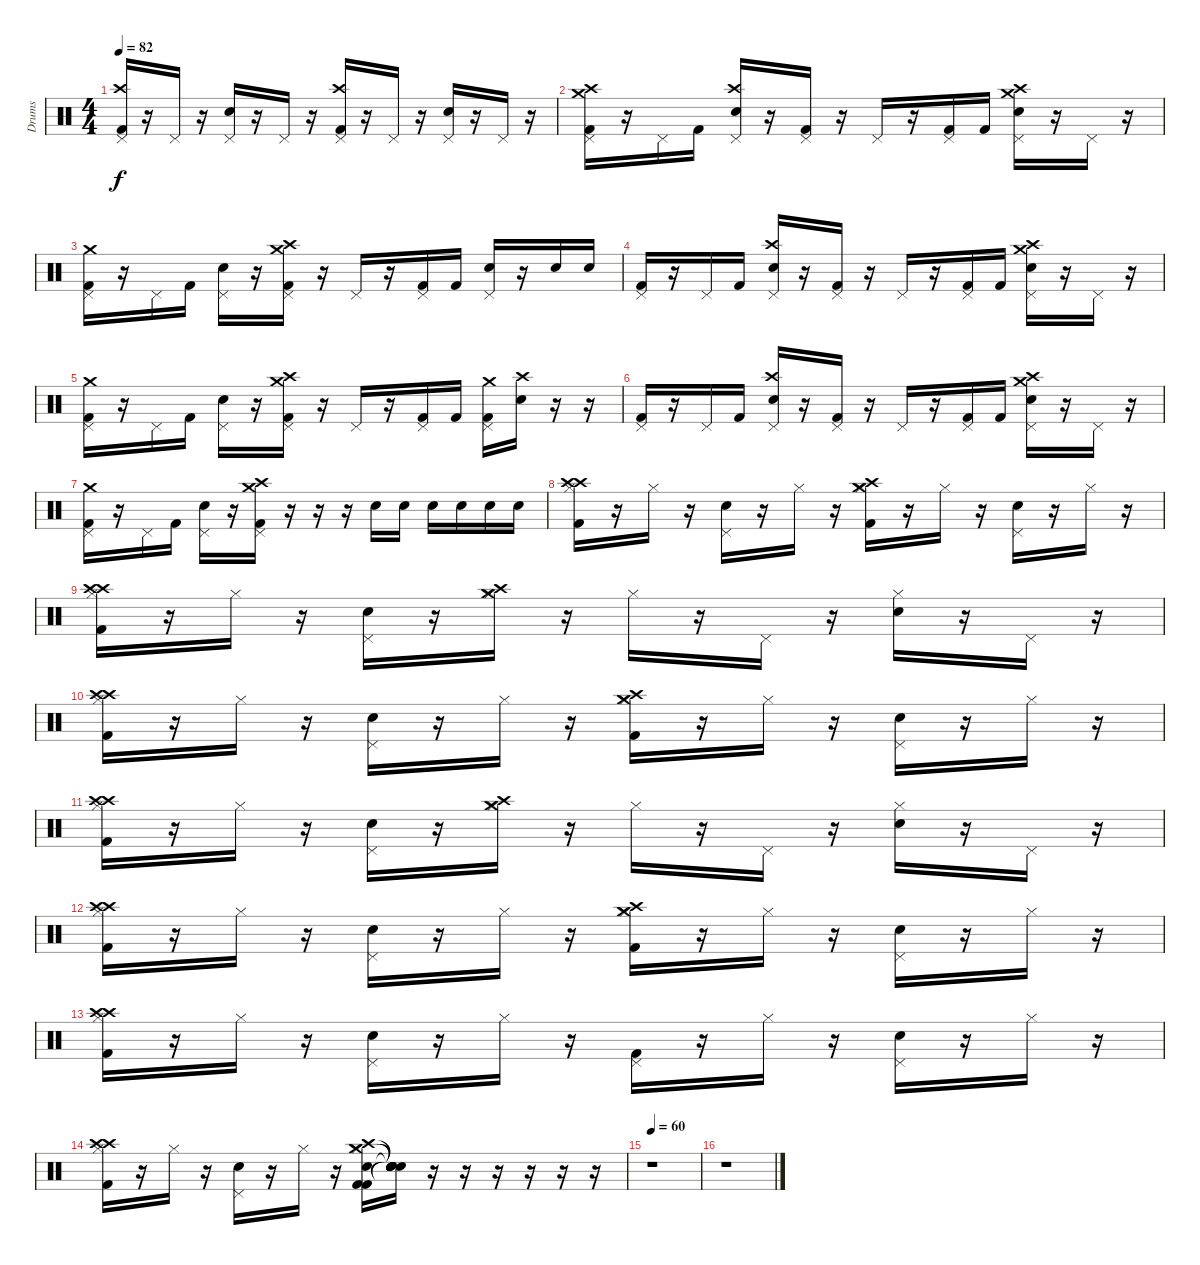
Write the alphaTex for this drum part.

\track ("Drums" "Drums") {instrument percussion}
\staff {score}
\articulation defaults
\ts (4 4)
\tempo 82
\clef neutral
\ks c
("Pedal Hi-Hat (hit)" "Crash high (hit)" "Kick (hit) 2").16{dy f} r.16 "Pedal Hi-Hat (hit)".16 r.16 ("Pedal Hi-Hat (hit)" "Snare (hit) 2").16 r.16 "Pedal Hi-Hat (hit)".16 r.16 ("Pedal Hi-Hat (hit)" "Crash high (hit)" "Kick (hit) 2").16 r.16 "Pedal Hi-Hat (hit)".16 r.16 ("Pedal Hi-Hat (hit)" "Snare (hit) 2").16 r.16 "Pedal Hi-Hat (hit)".16 r.16 |
("Pedal Hi-Hat (hit)" "Crash high (hit)" "Kick (hit) 2" "Crash medium (hit)").16 r.16 "Pedal Hi-Hat (hit)".16 "Kick (hit) 2".16 ("Pedal Hi-Hat (hit)" "Crash high (hit)" "Snare (hit) 2").16 r.16 ("Pedal Hi-Hat (hit)" "Kick (hit) 2").16 r.16 "Pedal Hi-Hat (hit)".16 r.16 ("Pedal Hi-Hat (hit)" "Kick (hit) 2").16 "Kick (hit) 2".16 ("Pedal Hi-Hat (hit)" "Crash high (hit)" "Snare (hit) 2" "Crash medium (hit)").16 r.16 "Pedal Hi-Hat (hit)".16 r.16 |
("Pedal Hi-Hat (hit)" "Crash medium (hit)" "Kick (hit) 2").16 r.16 "Pedal Hi-Hat (hit)".16 "Kick (hit) 2".16 ("Pedal Hi-Hat (hit)" "Snare (hit) 2").16 r.16 ("Pedal Hi-Hat (hit)" "Crash medium (hit)" "Kick (hit) 2" "Crash high (hit)").16 r.16 "Pedal Hi-Hat (hit)".16 r.16 ("Pedal Hi-Hat (hit)" "Kick (hit) 2").16 "Kick (hit) 2".16 ("Pedal Hi-Hat (hit)" "Snare (hit) 2").16 r.16 "Snare (hit) 2".16 "Snare (hit) 2".16 |
("Pedal Hi-Hat (hit)" "Kick (hit) 2").16 r.16 "Pedal Hi-Hat (hit)".16 "Kick (hit) 2".16 ("Pedal Hi-Hat (hit)" "Crash high (hit)" "Snare (hit) 2").16 r.16 ("Pedal Hi-Hat (hit)" "Kick (hit) 2").16 r.16 "Pedal Hi-Hat (hit)".16 r.16 ("Pedal Hi-Hat (hit)" "Kick (hit) 2").16 "Kick (hit) 2".16 ("Pedal Hi-Hat (hit)" "Crash high (hit)" "Snare (hit) 2" "Crash medium (hit)").16 r.16 "Pedal Hi-Hat (hit)".16 r.16 |
("Pedal Hi-Hat (hit)" "Crash medium (hit)" "Kick (hit) 2").16 r.16 "Pedal Hi-Hat (hit)".16 "Kick (hit) 2".16 ("Pedal Hi-Hat (hit)" "Snare (hit) 2").16 r.16 ("Pedal Hi-Hat (hit)" "Crash medium (hit)" "Kick (hit) 2" "Crash high (hit)").16 r.16 "Pedal Hi-Hat (hit)".16 r.16 ("Pedal Hi-Hat (hit)" "Kick (hit) 2").16 "Kick (hit) 2".16 ("Pedal Hi-Hat (hit)" "Crash medium (hit)" "Kick (hit) 2").16 ("Crash high (hit)" "Snare (hit) 2").16 r.16 r.16 |
("Pedal Hi-Hat (hit)" "Kick (hit) 2").16 r.16 "Pedal Hi-Hat (hit)".16 "Kick (hit) 2".16 ("Pedal Hi-Hat (hit)" "Crash high (hit)" "Snare (hit) 2").16 r.16 ("Pedal Hi-Hat (hit)" "Kick (hit) 2").16 r.16 "Pedal Hi-Hat (hit)".16 r.16 ("Pedal Hi-Hat (hit)" "Kick (hit) 2").16 "Kick (hit) 2".16 ("Pedal Hi-Hat (hit)" "Crash high (hit)" "Snare (hit) 2" "Crash medium (hit)").16 r.16 "Pedal Hi-Hat (hit)".16 r.16 |
("Pedal Hi-Hat (hit)" "Crash medium (hit)" "Kick (hit) 2").16 r.16 "Pedal Hi-Hat (hit)".16 "Kick (hit) 2".16 ("Pedal Hi-Hat (hit)" "Snare (hit) 2").16 r.16 ("Pedal Hi-Hat (hit)" "Crash medium (hit)" "Kick (hit) 2" "Crash high (hit)").16 r.16 r.16{volume 7} r.16{volume 16} "Snare (hit) 2".16 "Snare (hit) 2".16 "Snare (hit) 2".16 "Snare (hit) 2".16 "Snare (hit) 2".16 "Snare (hit) 2".16 |
("Hi-Hat (closed)" "Crash high (hit)" "Crash high (hit)" "Kick (hit) 2").16 r.16 "Hi-Hat (closed)".16 r.16 ("Pedal Hi-Hat (hit)" "Snare (hit) 2").16 r.16 "Hi-Hat (closed)".16 r.16 ("Hi-Hat (closed)" "Crash high (hit)" "Crash medium (hit)" "Kick (hit) 2").16 r.16 "Hi-Hat (closed)".16 r.16 ("Pedal Hi-Hat (hit)" "Snare (hit) 2").16 r.16 "Hi-Hat (closed)".16 r.16 |
("Hi-Hat (closed)" "Crash high (hit)" "Crash high (hit)" "Kick (hit) 2").16 r.16 "Hi-Hat (closed)".16 r.16 ("Pedal Hi-Hat (hit)" "Snare (hit) 2").16 r.16 ("Hi-Hat (closed)" "Crash high (hit)" "Crash medium (hit)").16 r.16 "Hi-Hat (closed)".16 r.16 "Pedal Hi-Hat (hit)".16 r.16 ("Hi-Hat (closed)" "Snare (hit) 2").16 r.16 "Pedal Hi-Hat (hit)".16 r.16 |
("Hi-Hat (closed)" "Crash high (hit)" "Crash high (hit)" "Kick (hit) 2").16 r.16 "Hi-Hat (closed)".16 r.16 ("Pedal Hi-Hat (hit)" "Snare (hit) 2").16 r.16 "Hi-Hat (closed)".16 r.16 ("Hi-Hat (closed)" "Crash high (hit)" "Crash medium (hit)" "Kick (hit) 2").16 r.16 "Hi-Hat (closed)".16 r.16 ("Pedal Hi-Hat (hit)" "Snare (hit) 2").16 r.16 "Hi-Hat (closed)".16 r.16 |
("Hi-Hat (closed)" "Crash high (hit)" "Crash high (hit)" "Kick (hit) 2").16 r.16 "Hi-Hat (closed)".16 r.16 ("Pedal Hi-Hat (hit)" "Snare (hit) 2").16 r.16 ("Hi-Hat (closed)" "Crash high (hit)" "Crash medium (hit)").16 r.16 "Hi-Hat (closed)".16 r.16 "Pedal Hi-Hat (hit)".16 r.16 ("Hi-Hat (closed)" "Snare (hit) 2").16 r.16 "Pedal Hi-Hat (hit)".16 r.16 |
("Hi-Hat (closed)" "Crash high (hit)" "Crash high (hit)" "Kick (hit) 2").16 r.16 "Hi-Hat (closed)".16 r.16 ("Pedal Hi-Hat (hit)" "Snare (hit) 2").16 r.16 "Hi-Hat (closed)".16 r.16 ("Hi-Hat (closed)" "Crash high (hit)" "Crash medium (hit)" "Kick (hit) 2").16 r.16 "Hi-Hat (closed)".16 r.16 ("Pedal Hi-Hat (hit)" "Snare (hit) 2").16 r.16 "Hi-Hat (closed)".16 r.16 |
("Hi-Hat (closed)" "Crash high (hit)" "Crash high (hit)" "Kick (hit) 2").16 r.16 "Hi-Hat (closed)".16 r.16 ("Pedal Hi-Hat (hit)" "Snare (hit) 2").16 r.16 "Hi-Hat (closed)".16 r.16 ("Pedal Hi-Hat (hit)" "Kick (hit) 2").16 r.16 "Hi-Hat (closed)".16 r.16 ("Pedal Hi-Hat (hit)" "Snare (hit) 2").16 r.16 "Hi-Hat (closed)".16 r.16 |
("Hi-Hat (closed)" "Crash high (hit)" "Crash high (hit)" "Kick (hit) 2").16 r.16 "Hi-Hat (closed)".16 r.16 ("Pedal Hi-Hat (hit)" "Snare (hit) 2").16 r.16 "Hi-Hat (closed)".16 r.16 ("Hi-Hat (closed)" "Kick (hit) 2" "Snare (hit) 2" "Kick (hit) 2" "Crash high (hit)" "Crash medium (hit)").16 ("Snare (hit)"{t} "Snare (hit)"{t} "Snare (hit)"{t} "Snare (hit)"{t} "Snare (hit)"{t} "Snare (hit)"{t}).16 r.16 r.16 r.16 r.16 r.16 r.16 |
\tempo 60
r.1 |
r.1
